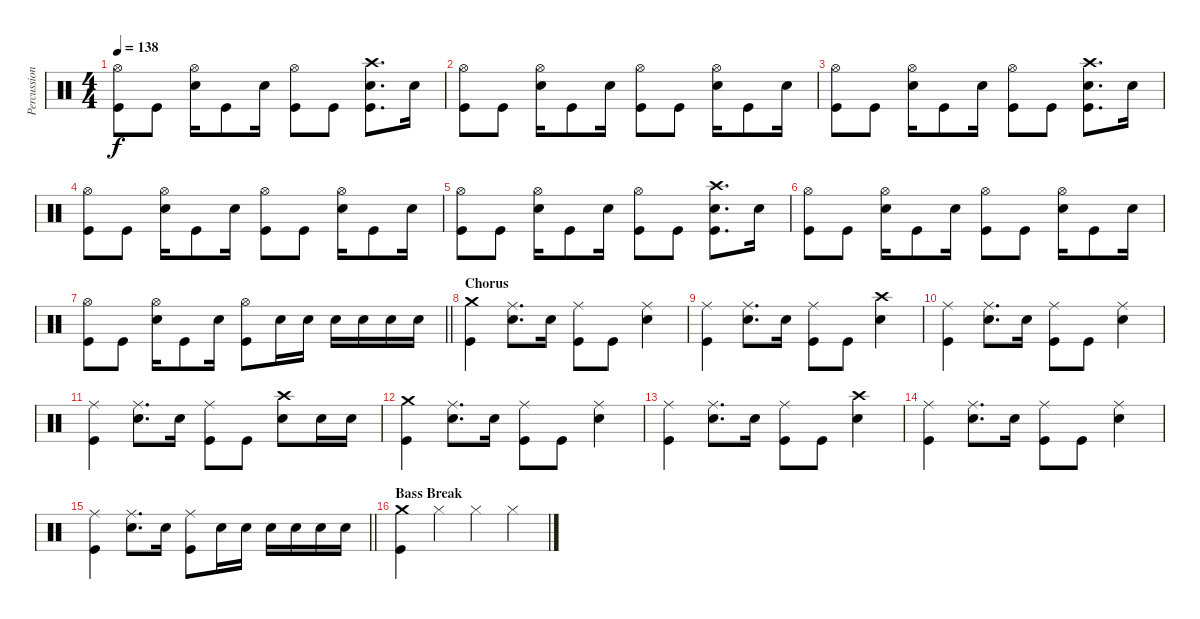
\track ("Percussion" "Percussion") {instrument percussion}
\staff {score}
\articulation defaults
\ts (4 4)
\tempo 138
\clef neutral
\ks c
("Hi-Hat (open)" "Kick (hit)").8{dy f} "Kick (hit)".8 ("Hi-Hat (open)" "Electric Snare (hit)").16 "Kick (hit)".8 "Electric Snare (hit)".16 ("Hi-Hat (open)" "Kick (hit)").8 "Kick (hit)".8 ("Crash high (hit)" "Electric Snare (hit)" "Kick (hit)").8{d} "Electric Snare (hit)".16 |
("Hi-Hat (open)" "Kick (hit)").8 "Kick (hit)".8 ("Hi-Hat (open)" "Electric Snare (hit)").16 "Kick (hit)".8 "Electric Snare (hit)".16 ("Hi-Hat (open)" "Kick (hit)").8 "Kick (hit)".8 ("Hi-Hat (open)" "Electric Snare (hit)").16 "Kick (hit)".8 "Electric Snare (hit)".16 |
("Hi-Hat (open)" "Kick (hit)").8 "Kick (hit)".8 ("Hi-Hat (open)" "Electric Snare (hit)").16 "Kick (hit)".8 "Electric Snare (hit)".16 ("Hi-Hat (open)" "Kick (hit)").8 "Kick (hit)".8 ("Crash high (hit)" "Electric Snare (hit)" "Kick (hit)").8{d} "Electric Snare (hit)".16 |
("Hi-Hat (open)" "Kick (hit)").8 "Kick (hit)".8 ("Hi-Hat (open)" "Electric Snare (hit)").16 "Kick (hit)".8 "Electric Snare (hit)".16 ("Hi-Hat (open)" "Kick (hit)").8 "Kick (hit)".8 ("Hi-Hat (open)" "Electric Snare (hit)").16 "Kick (hit)".8 "Electric Snare (hit)".16 |
("Hi-Hat (open)" "Kick (hit)").8 "Kick (hit)".8 ("Hi-Hat (open)" "Electric Snare (hit)").16 "Kick (hit)".8 "Electric Snare (hit)".16 ("Hi-Hat (open)" "Kick (hit)").8 "Kick (hit)".8 ("Crash high (hit)" "Electric Snare (hit)" "Kick (hit)").8{d} "Electric Snare (hit)".16 |
("Hi-Hat (open)" "Kick (hit)").8 "Kick (hit)".8 ("Hi-Hat (open)" "Electric Snare (hit)").16 "Kick (hit)".8 "Electric Snare (hit)".16 ("Hi-Hat (open)" "Kick (hit)").8 "Kick (hit)".8 ("Hi-Hat (open)" "Electric Snare (hit)").16 "Kick (hit)".8 "Electric Snare (hit)".16 |
\barLineRight lightlight
("Hi-Hat (open)" "Kick (hit)").8 "Kick (hit)".8 ("Hi-Hat (open)" "Electric Snare (hit)").16 "Kick (hit)".8 "Electric Snare (hit)".16 ("Hi-Hat (open)" "Kick (hit)").8 "Electric Snare (hit)".16 "Electric Snare (hit)".16 "Electric Snare (hit)".16 "Electric Snare (hit)".16 "Electric Snare (hit)".16 "Electric Snare (hit)".16 |
\section ("" "Chorus")
("Crash medium (hit)" "Kick (hit)").4 ("Ride (middle)" "Electric Snare (hit)").8{d} "Electric Snare (hit)".16 ("Ride (middle)" "Kick (hit)").8 "Kick (hit)".8 ("Ride (middle)" "Electric Snare (hit)").4 |
("Ride (middle)" "Kick (hit)").4 ("Ride (middle)" "Electric Snare (hit)").8{d} "Electric Snare (hit)".16 ("Ride (middle)" "Kick (hit)").8 "Kick (hit)".8 ("Crash high (hit)" "Electric Snare (hit)").4 |
("Ride (middle)" "Kick (hit)").4 ("Ride (middle)" "Electric Snare (hit)").8{d} "Electric Snare (hit)".16 ("Ride (middle)" "Kick (hit)").8 "Kick (hit)".8 ("Ride (middle)" "Electric Snare (hit)").4 |
("Ride (middle)" "Kick (hit)").4 ("Ride (middle)" "Electric Snare (hit)").8{d} "Electric Snare (hit)".16 ("Ride (middle)" "Kick (hit)").8 "Kick (hit)".8 ("Crash high (hit)" "Electric Snare (hit)").8 "Electric Snare (hit)".16 "Electric Snare (hit)".16 |
("Crash medium (hit)" "Kick (hit)").4 ("Ride (middle)" "Electric Snare (hit)").8{d} "Electric Snare (hit)".16 ("Ride (middle)" "Kick (hit)").8 "Kick (hit)".8 ("Ride (middle)" "Electric Snare (hit)").4 |
("Ride (middle)" "Kick (hit)").4 ("Ride (middle)" "Electric Snare (hit)").8{d} "Electric Snare (hit)".16 ("Ride (middle)" "Kick (hit)").8 "Kick (hit)".8 ("Crash high (hit)" "Electric Snare (hit)").4 |
("Ride (middle)" "Kick (hit)").4 ("Ride (middle)" "Electric Snare (hit)").8{d} "Electric Snare (hit)".16 ("Ride (middle)" "Kick (hit)").8 "Kick (hit)".8 ("Ride (middle)" "Electric Snare (hit)").4 |
\barLineRight lightlight
("Ride (middle)" "Kick (hit)").4 ("Ride (middle)" "Electric Snare (hit)").8{d} "Electric Snare (hit)".16 ("Ride (middle)" "Kick (hit)").8 "Electric Snare (hit)".16 "Electric Snare (hit)".16 "Electric Snare (hit)".16 "Electric Snare (hit)".16 "Electric Snare (hit)".16 "Electric Snare (hit)".16 |
\section ("" "Bass Break")
("Crash medium (hit)" "Kick (hit)").4 "Hi-Hat (closed)".4 "Hi-Hat (closed)".4 "Hi-Hat (closed)".4
